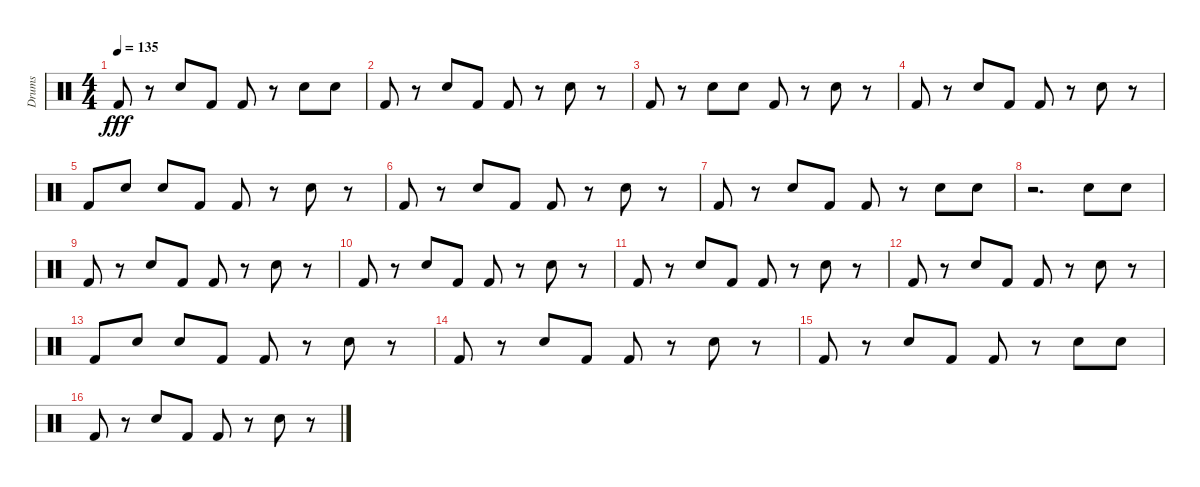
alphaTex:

\track ("Drums" "Drums") {instrument percussion}
\staff {score}
\articulation defaults
\ts (4 4)
\tempo 135
\clef neutral
\ks c "Kick (hit) 2".8{dy fff}
r.8 "Snare (hit) 2".8 "Kick (hit) 2".8 "Kick (hit) 2".8 r.8 "Snare (hit) 2".8 "Snare (hit) 2".8 |
"Kick (hit) 2".8 r.8 "Snare (hit) 2".8 "Kick (hit) 2".8 "Kick (hit) 2".8 r.8 "Snare (hit) 2".8 r.8 |
"Kick (hit) 2".8 r.8 "Snare (hit) 2".8 "Snare (hit) 2".8 "Kick (hit) 2".8 r.8 "Snare (hit) 2".8 r.8 |
"Kick (hit) 2".8 r.8 "Snare (hit) 2".8 "Kick (hit) 2".8 "Kick (hit) 2".8 r.8 "Snare (hit) 2".8 r.8 |
"Kick (hit) 2".8 "Snare (hit) 2".8 "Snare (hit) 2".8 "Kick (hit) 2".8 "Kick (hit) 2".8 r.8 "Snare (hit) 2".8 r.8 |
"Kick (hit) 2".8 r.8 "Snare (hit) 2".8 "Kick (hit) 2".8 "Kick (hit) 2".8 r.8 "Snare (hit) 2".8 r.8 |
"Kick (hit) 2".8 r.8 "Snare (hit) 2".8 "Kick (hit) 2".8 "Kick (hit) 2".8 r.8 "Snare (hit) 2".8 "Snare (hit) 2".8 |
r.2{d} "Snare (hit) 2".8 "Snare (hit) 2".8 |
"Kick (hit) 2".8 r.8 "Snare (hit) 2".8 "Kick (hit) 2".8 "Kick (hit) 2".8 r.8 "Snare (hit) 2".8 r.8 |
"Kick (hit) 2".8 r.8 "Snare (hit) 2".8 "Kick (hit) 2".8 "Kick (hit) 2".8 r.8 "Snare (hit) 2".8 r.8 |
"Kick (hit) 2".8 r.8 "Snare (hit) 2".8 "Kick (hit) 2".8 "Kick (hit) 2".8 r.8 "Snare (hit) 2".8 r.8 |
"Kick (hit) 2".8 r.8 "Snare (hit) 2".8 "Kick (hit) 2".8 "Kick (hit) 2".8 r.8 "Snare (hit) 2".8 r.8 |
"Kick (hit) 2".8 "Snare (hit) 2".8 "Snare (hit) 2".8 "Kick (hit) 2".8 "Kick (hit) 2".8 r.8 "Snare (hit) 2".8 r.8 |
"Kick (hit) 2".8 r.8 "Snare (hit) 2".8 "Kick (hit) 2".8 "Kick (hit) 2".8 r.8 "Snare (hit) 2".8 r.8 |
"Kick (hit) 2".8 r.8 "Snare (hit) 2".8 "Kick (hit) 2".8 "Kick (hit) 2".8 r.8 "Snare (hit) 2".8 "Snare (hit) 2".8 |
"Kick (hit) 2".8 r.8 "Snare (hit) 2".8 "Kick (hit) 2".8 "Kick (hit) 2".8 r.8 "Snare (hit) 2".8 r.8
